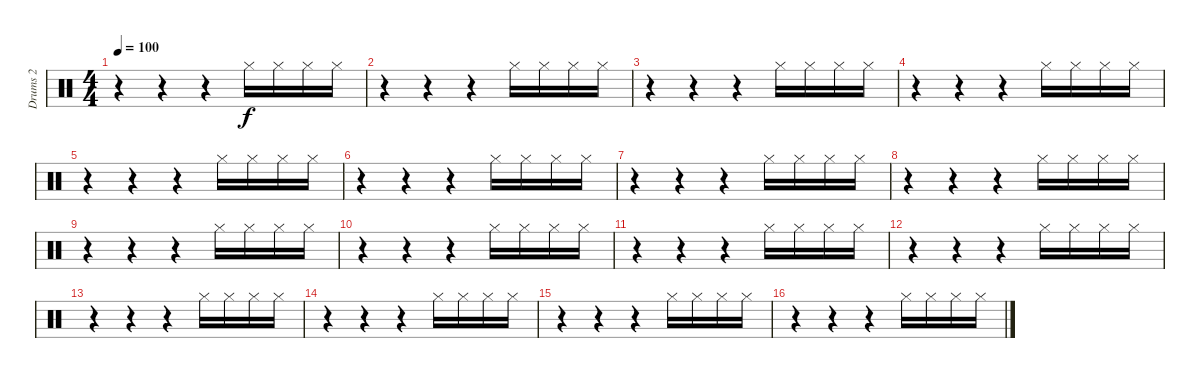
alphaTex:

\track ("Drums 2" "Drums 2") {instrument percussion}
\staff {score}
\articulation defaults
\ts (4 4)
\tempo 100
\clef neutral
\ks c
r.4{dy f} r.4 r.4 "Hi-Hat (closed)".16 "Hi-Hat (closed)".16 "Hi-Hat (closed)".16 "Hi-Hat (closed)".16 |
r.4 r.4 r.4 "Hi-Hat (closed)".16 "Hi-Hat (closed)".16 "Hi-Hat (closed)".16 "Hi-Hat (closed)".16 |
r.4 r.4 r.4 "Hi-Hat (closed)".16 "Hi-Hat (closed)".16 "Hi-Hat (closed)".16 "Hi-Hat (closed)".16 |
r.4 r.4 r.4 "Hi-Hat (closed)".16 "Hi-Hat (closed)".16 "Hi-Hat (closed)".16 "Hi-Hat (closed)".16 |
r.4 r.4 r.4 "Hi-Hat (closed)".16 "Hi-Hat (closed)".16 "Hi-Hat (closed)".16 "Hi-Hat (closed)".16 |
r.4 r.4 r.4 "Hi-Hat (closed)".16 "Hi-Hat (closed)".16 "Hi-Hat (closed)".16 "Hi-Hat (closed)".16 |
r.4 r.4 r.4 "Hi-Hat (closed)".16 "Hi-Hat (closed)".16 "Hi-Hat (closed)".16 "Hi-Hat (closed)".16 |
r.4 r.4 r.4 "Hi-Hat (closed)".16 "Hi-Hat (closed)".16 "Hi-Hat (closed)".16 "Hi-Hat (closed)".16 |
r.4 r.4 r.4 "Hi-Hat (closed)".16 "Hi-Hat (closed)".16 "Hi-Hat (closed)".16 "Hi-Hat (closed)".16 |
r.4 r.4 r.4 "Hi-Hat (closed)".16 "Hi-Hat (closed)".16 "Hi-Hat (closed)".16 "Hi-Hat (closed)".16 |
r.4 r.4 r.4 "Hi-Hat (closed)".16 "Hi-Hat (closed)".16 "Hi-Hat (closed)".16 "Hi-Hat (closed)".16 |
r.4 r.4 r.4 "Hi-Hat (closed)".16 "Hi-Hat (closed)".16 "Hi-Hat (closed)".16 "Hi-Hat (closed)".16 |
r.4 r.4 r.4 "Hi-Hat (closed)".16 "Hi-Hat (closed)".16 "Hi-Hat (closed)".16 "Hi-Hat (closed)".16 |
r.4 r.4 r.4 "Hi-Hat (closed)".16 "Hi-Hat (closed)".16 "Hi-Hat (closed)".16 "Hi-Hat (closed)".16 |
r.4 r.4 r.4 "Hi-Hat (closed)".16 "Hi-Hat (closed)".16 "Hi-Hat (closed)".16 "Hi-Hat (closed)".16 |
r.4 r.4 r.4 "Hi-Hat (closed)".16 "Hi-Hat (closed)".16 "Hi-Hat (closed)".16 "Hi-Hat (closed)".16
